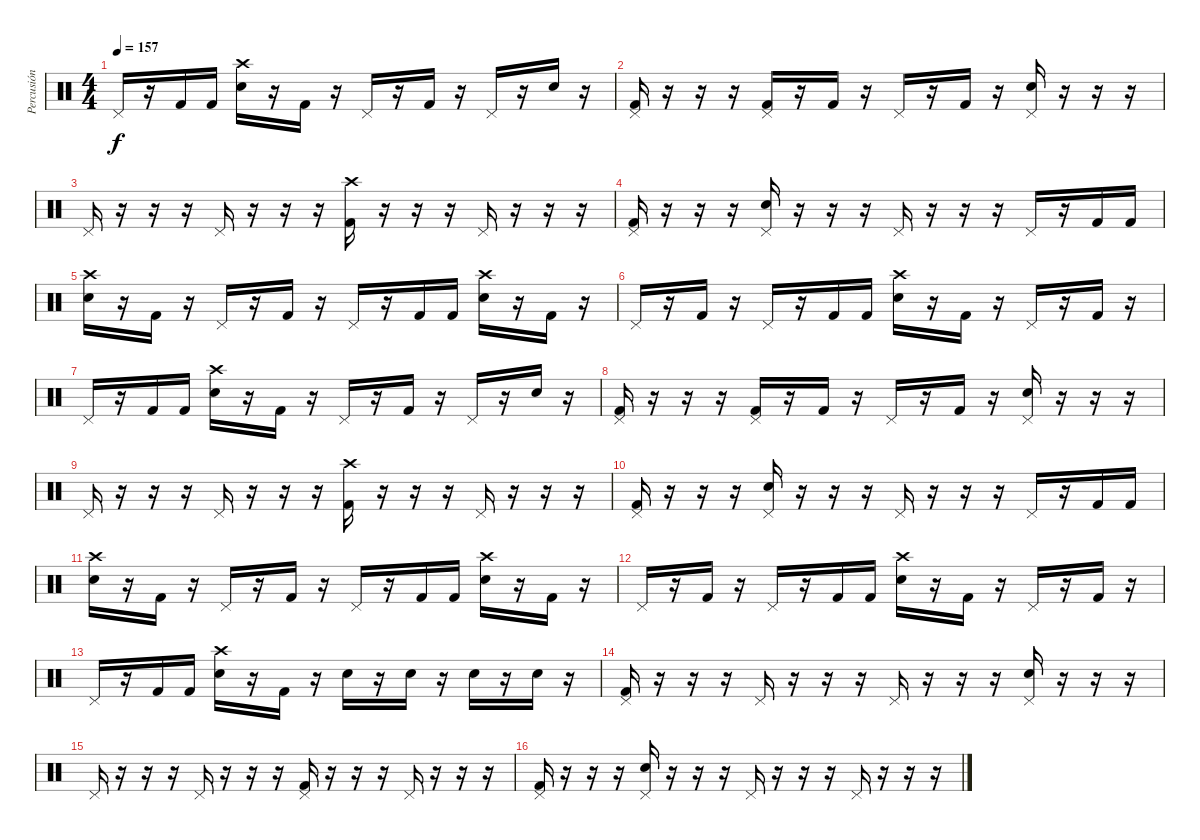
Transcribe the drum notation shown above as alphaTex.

\track ("Percusión" "Percusión") {instrument percussion}
\staff {score}
\articulation defaults
\ts (4 4)
\tempo 157
\clef neutral
\ks c "Pedal Hi-Hat (hit)".16{dy f}
r.16 "Kick (hit) 2".16 "Kick (hit) 2".16 ("Crash high (hit)" "Electric Snare (hit)").16 r.16 "Kick (hit) 2".16 r.16 "Pedal Hi-Hat (hit)".16 r.16 "Kick (hit) 2".16 r.16 "Pedal Hi-Hat (hit)".16 r.16 "Electric Snare (hit)".16 r.16 |
("Pedal Hi-Hat (hit)" "Kick (hit) 2").16 r.16 r.16 r.16 ("Pedal Hi-Hat (hit)" "Kick (hit) 2").16 r.16 "Kick (hit) 2".16 r.16 "Pedal Hi-Hat (hit)".16 r.16 "Kick (hit) 2".16 r.16 ("Pedal Hi-Hat (hit)" "Electric Snare (hit)").16 r.16 r.16 r.16 |
"Pedal Hi-Hat (hit)".16 r.16 r.16 r.16 "Pedal Hi-Hat (hit)".16 r.16 r.16 r.16 ("Crash high (hit)" "Kick (hit) 2").16 r.16 r.16 r.16 "Pedal Hi-Hat (hit)".16 r.16 r.16 r.16 |
("Pedal Hi-Hat (hit)" "Kick (hit) 2").16 r.16 r.16 r.16 ("Pedal Hi-Hat (hit)" "Electric Snare (hit)").16 r.16 r.16 r.16 "Pedal Hi-Hat (hit)".16 r.16 r.16 r.16 "Pedal Hi-Hat (hit)".16 r.16 "Kick (hit) 2".16 "Kick (hit) 2".16 |
("Crash high (hit)" "Electric Snare (hit)").16 r.16 "Kick (hit) 2".16 r.16 "Pedal Hi-Hat (hit)".16 r.16 "Kick (hit) 2".16 r.16 "Pedal Hi-Hat (hit)".16 r.16 "Kick (hit) 2".16 "Kick (hit) 2".16 ("Crash high (hit)" "Electric Snare (hit)").16 r.16 "Kick (hit) 2".16 r.16 |
"Pedal Hi-Hat (hit)".16 r.16 "Kick (hit) 2".16 r.16 "Pedal Hi-Hat (hit)".16 r.16 "Kick (hit) 2".16 "Kick (hit) 2".16 ("Crash high (hit)" "Electric Snare (hit)").16 r.16 "Kick (hit) 2".16 r.16 "Pedal Hi-Hat (hit)".16 r.16 "Kick (hit) 2".16 r.16 |
"Pedal Hi-Hat (hit)".16 r.16 "Kick (hit) 2".16 "Kick (hit) 2".16 ("Crash high (hit)" "Electric Snare (hit)").16 r.16 "Kick (hit) 2".16 r.16 "Pedal Hi-Hat (hit)".16 r.16 "Kick (hit) 2".16 r.16 "Pedal Hi-Hat (hit)".16 r.16 "Electric Snare (hit)".16 r.16 |
("Pedal Hi-Hat (hit)" "Kick (hit) 2").16 r.16 r.16 r.16 ("Pedal Hi-Hat (hit)" "Kick (hit) 2").16 r.16 "Kick (hit) 2".16 r.16 "Pedal Hi-Hat (hit)".16 r.16 "Kick (hit) 2".16 r.16 ("Pedal Hi-Hat (hit)" "Electric Snare (hit)").16 r.16 r.16 r.16 |
"Pedal Hi-Hat (hit)".16 r.16 r.16 r.16 "Pedal Hi-Hat (hit)".16 r.16 r.16 r.16 ("Crash high (hit)" "Kick (hit) 2").16 r.16 r.16 r.16 "Pedal Hi-Hat (hit)".16 r.16 r.16 r.16 |
("Pedal Hi-Hat (hit)" "Kick (hit) 2").16 r.16 r.16 r.16 ("Pedal Hi-Hat (hit)" "Electric Snare (hit)").16 r.16 r.16 r.16 "Pedal Hi-Hat (hit)".16 r.16 r.16 r.16 "Pedal Hi-Hat (hit)".16 r.16 "Kick (hit) 2".16 "Kick (hit) 2".16 |
("Crash high (hit)" "Snare (hit) 2").16 r.16 "Kick (hit) 2".16 r.16 "Pedal Hi-Hat (hit)".16 r.16 "Kick (hit) 2".16 r.16 "Pedal Hi-Hat (hit)".16 r.16 "Kick (hit) 2".16 "Kick (hit) 2".16 ("Crash high (hit)" "Electric Snare (hit)").16 r.16 "Kick (hit) 2".16 r.16 |
"Pedal Hi-Hat (hit)".16 r.16 "Kick (hit) 2".16 r.16 "Pedal Hi-Hat (hit)".16 r.16 "Kick (hit) 2".16 "Kick (hit) 2".16 ("Crash high (hit)" "Electric Snare (hit)").16 r.16 "Kick (hit) 2".16 r.16 "Pedal Hi-Hat (hit)".16 r.16 "Kick (hit) 2".16 r.16 |
"Pedal Hi-Hat (hit)".16 r.16 "Kick (hit) 2".16 "Kick (hit) 2".16 ("Crash high (hit)" "Electric Snare (hit)").16 r.16 "Kick (hit) 2".16 r.16 "Electric Snare (hit)".16 r.16 "Electric Snare (hit)".16 r.16 "Electric Snare (hit)".16 r.16 "Electric Snare (hit)".16 r.16 |
("Pedal Hi-Hat (hit)" "Kick (hit) 2").16 r.16 r.16 r.16 "Pedal Hi-Hat (hit)".16 r.16 r.16 r.16 "Pedal Hi-Hat (hit)".16 r.16 r.16 r.16 ("Pedal Hi-Hat (hit)" "Electric Snare (hit)").16 r.16 r.16 r.16 |
"Pedal Hi-Hat (hit)".16 r.16 r.16 r.16 "Pedal Hi-Hat (hit)".16 r.16 r.16 r.16 ("Pedal Hi-Hat (hit)" "Kick (hit) 2").16 r.16 r.16 r.16 "Pedal Hi-Hat (hit)".16 r.16 r.16 r.16 |
("Pedal Hi-Hat (hit)" "Kick (hit) 2").16 r.16 r.16 r.16 ("Pedal Hi-Hat (hit)" "Electric Snare (hit)").16 r.16 r.16 r.16 "Pedal Hi-Hat (hit)".16 r.16 r.16 r.16 "Pedal Hi-Hat (hit)".16 r.16 r.16 r.16
